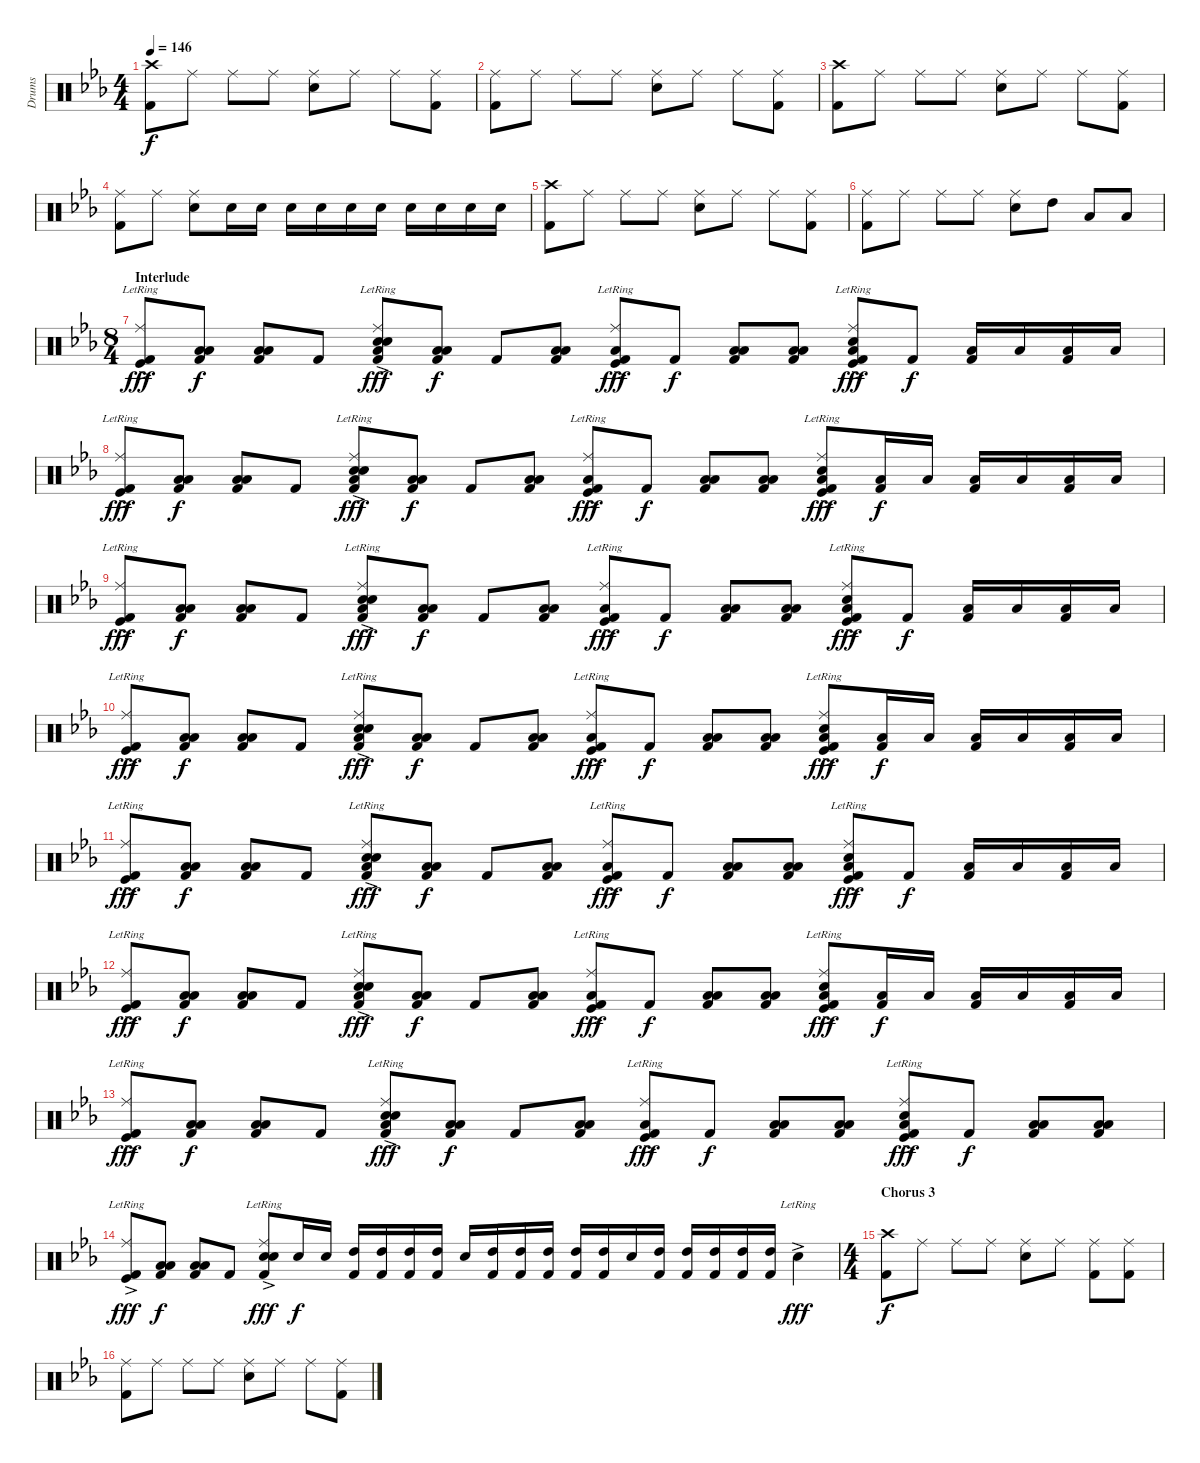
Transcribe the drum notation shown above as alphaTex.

\track ("Drums" "Drums") {instrument percussion}
\staff {score}
\articulation defaults
\ts (4 4)
\tempo 146
\clef neutral
\ks eb
("Crash high (hit)" "Kick (hit) 2").8{dy f} "Ride (middle)".8 "Ride (middle)".8 "Ride (middle)".8 ("Ride (middle)" "Electric Snare (hit)").8 "Ride (middle)".8 "Ride (middle)".8 ("Ride (middle)" "Kick (hit) 2").8 |
("Ride (middle)" "Kick (hit) 2").8 "Ride (middle)".8 "Ride (middle)".8 "Ride (middle)".8 ("Ride (middle)" "Electric Snare (hit)").8 "Ride (middle)".8 "Ride (middle)".8 ("Ride (middle)" "Kick (hit) 2").8 |
("Crash high (hit)" "Kick (hit) 2").8 "Ride (middle)".8 "Ride (middle)".8 "Ride (middle)".8 ("Ride (middle)" "Electric Snare (hit)").8 "Ride (middle)".8 "Ride (middle)".8 ("Ride (middle)" "Kick (hit) 2").8 |
("Ride (middle)" "Kick (hit) 2").8 "Ride (middle)".8 ("Ride (middle)" "Electric Snare (hit)").8 "Electric Snare (hit)".16 "Electric Snare (hit)".16 "Electric Snare (hit)".16 "Electric Snare (hit)".16 "Electric Snare (hit)".16 "Electric Snare (hit)".16 "Electric Snare (hit)".16 "Electric Snare (hit)".16 "Electric Snare (hit)".16 "Electric Snare (hit)".16 |
("Crash high (hit)" "Kick (hit) 2").8 "Ride (middle)".8 "Ride (middle)".8 "Ride (middle)".8 ("Ride (middle)" "Electric Snare (hit)").8 "Ride (middle)".8 "Ride (middle)".8 ("Ride (middle)" "Kick (hit) 2").8 |
("Ride (middle)" "Kick (hit) 2").8 "Ride (middle)".8 "Ride (middle)".8 "Ride (middle)".8 ("Ride (middle)" "Electric Snare (hit)").8 "High Tom (hit)".8 "Low Tom (hit)".8 "Low Floor Tom (hit)".8 |
\ts (8 4)
\section ("" "Interlude")
("Ride (middle)"{ac} "Kick (hit)"{ac} "Kick (hit) 2"{ac lr}).8{dy fff} ("Low Tom (hit)" "Low Floor Tom (hit)" "Kick (hit) 2").8{dy f} ("Low Tom (hit)" "Low Floor Tom (hit)" "Kick (hit) 2").8 "Kick (hit) 2".8 ("Ride (middle)"{ac} "Snare (hit) 2"{ac lr} "Kick (hit) 2" "Low Floor Tom (hit)" "Electric Snare (hit)"{ac lr}).8{dy fff} ("Low Tom (hit)" "Low Floor Tom (hit)" "Kick (hit) 2").8{dy f} "Kick (hit) 2".8 ("Low Tom (hit)" "Low Floor Tom (hit)" "Kick (hit) 2").8 ("Ride (middle)"{ac} "Kick (hit)"{ac lr} "Low Floor Tom (hit)" "Kick (hit) 2"{ac lr}).8{dy fff} "Kick (hit) 2".8{dy f} ("Low Tom (hit)" "Low Floor Tom (hit)" "Kick (hit) 2").8 ("Low Tom (hit)" "Low Floor Tom (hit)" "Kick (hit) 2").8 ("Ride (middle)"{ac} "Kick (hit)"{ac lr} "Kick (hit) 2"{ac lr} "Low Floor Tom (hit)" "Electric Snare (hit)").8{dy fff} "Kick (hit) 2".8{dy f} ("Low Floor Tom (hit)" "Kick (hit) 2").16 "Low Tom (hit)".16 ("Low Floor Tom (hit)" "Kick (hit) 2").16 "Low Tom (hit)".16 |
("Ride (middle)"{ac} "Kick (hit)"{ac} "Kick (hit) 2"{ac lr}).8{dy fff} ("Low Tom (hit)" "Low Floor Tom (hit)" "Kick (hit) 2").8{dy f} ("Low Tom (hit)" "Low Floor Tom (hit)" "Kick (hit) 2").8 "Kick (hit) 2".8 ("Ride (middle)"{ac} "Snare (hit) 2"{ac lr} "Kick (hit) 2" "Low Floor Tom (hit)" "Electric Snare (hit)"{ac lr}).8{dy fff} ("Low Tom (hit)" "Low Floor Tom (hit)" "Kick (hit) 2").8{dy f} "Kick (hit) 2".8 ("Low Tom (hit)" "Low Floor Tom (hit)" "Kick (hit) 2").8 ("Ride (middle)"{ac} "Kick (hit)"{ac lr} "Low Floor Tom (hit)" "Kick (hit) 2"{ac lr}).8{dy fff} "Kick (hit) 2".8{dy f} ("Low Tom (hit)" "Low Floor Tom (hit)" "Kick (hit) 2").8 ("Low Tom (hit)" "Low Floor Tom (hit)" "Kick (hit) 2").8 ("Ride (middle)"{ac} "Kick (hit)"{ac lr} "Kick (hit) 2"{ac lr} "Low Floor Tom (hit)" "Electric Snare (hit)").8{dy fff} ("Low Floor Tom (hit)" "Kick (hit) 2").16{dy f} "Low Tom (hit)".16 ("Low Floor Tom (hit)" "Kick (hit) 2").16 "Low Tom (hit)".16 ("Low Floor Tom (hit)" "Kick (hit) 2").16 "Low Tom (hit)".16 |
("Ride (middle)"{ac} "Kick (hit)"{ac} "Kick (hit) 2"{ac lr}).8{dy fff} ("Low Tom (hit)" "Low Floor Tom (hit)" "Kick (hit) 2").8{dy f} ("Low Tom (hit)" "Low Floor Tom (hit)" "Kick (hit) 2").8 "Kick (hit) 2".8 ("Ride (middle)"{ac} "Snare (hit) 2"{ac lr} "Kick (hit) 2" "Low Floor Tom (hit)" "Electric Snare (hit)"{ac lr}).8{dy fff} ("Low Tom (hit)" "Low Floor Tom (hit)" "Kick (hit) 2").8{dy f} "Kick (hit) 2".8 ("Low Tom (hit)" "Low Floor Tom (hit)" "Kick (hit) 2").8 ("Ride (middle)"{ac} "Kick (hit)"{ac lr} "Low Floor Tom (hit)" "Kick (hit) 2"{ac lr}).8{dy fff} "Kick (hit) 2".8{dy f} ("Low Tom (hit)" "Low Floor Tom (hit)" "Kick (hit) 2").8 ("Low Tom (hit)" "Low Floor Tom (hit)" "Kick (hit) 2").8 ("Ride (middle)"{ac} "Kick (hit)"{ac lr} "Kick (hit) 2"{ac lr} "Low Floor Tom (hit)" "Electric Snare (hit)").8{dy fff} "Kick (hit) 2".8{dy f} ("Low Floor Tom (hit)" "Kick (hit) 2").16 "Low Tom (hit)".16 ("Low Floor Tom (hit)" "Kick (hit) 2").16 "Low Tom (hit)".16 |
("Ride (middle)"{ac} "Kick (hit)"{ac} "Kick (hit) 2"{ac lr}).8{dy fff} ("Low Tom (hit)" "Low Floor Tom (hit)" "Kick (hit) 2").8{dy f} ("Low Tom (hit)" "Low Floor Tom (hit)" "Kick (hit) 2").8 "Kick (hit) 2".8 ("Ride (middle)"{ac} "Snare (hit) 2"{ac lr} "Kick (hit) 2" "Low Floor Tom (hit)" "Electric Snare (hit)"{ac lr}).8{dy fff} ("Low Tom (hit)" "Low Floor Tom (hit)" "Kick (hit) 2").8{dy f} "Kick (hit) 2".8 ("Low Tom (hit)" "Low Floor Tom (hit)" "Kick (hit) 2").8 ("Ride (middle)"{ac} "Kick (hit)"{ac lr} "Low Floor Tom (hit)" "Kick (hit) 2"{ac lr}).8{dy fff} "Kick (hit) 2".8{dy f} ("Low Tom (hit)" "Low Floor Tom (hit)" "Kick (hit) 2").8 ("Low Tom (hit)" "Low Floor Tom (hit)" "Kick (hit) 2").8 ("Ride (middle)"{ac} "Kick (hit)"{ac lr} "Kick (hit) 2"{ac lr} "Low Floor Tom (hit)" "Electric Snare (hit)").8{dy fff} ("Low Floor Tom (hit)" "Kick (hit) 2").16{dy f} "Low Tom (hit)".16 ("Low Floor Tom (hit)" "Kick (hit) 2").16 "Low Tom (hit)".16 ("Low Floor Tom (hit)" "Kick (hit) 2").16 "Low Tom (hit)".16 |
("Ride (middle)"{ac} "Kick (hit)"{ac} "Kick (hit) 2"{ac lr}).8{dy fff} ("Low Tom (hit)" "Low Floor Tom (hit)" "Kick (hit) 2").8{dy f} ("Low Tom (hit)" "Low Floor Tom (hit)" "Kick (hit) 2").8 "Kick (hit) 2".8 ("Ride (middle)"{ac} "Snare (hit) 2"{ac lr} "Kick (hit) 2" "Low Floor Tom (hit)" "Electric Snare (hit)"{ac lr}).8{dy fff} ("Low Tom (hit)" "Low Floor Tom (hit)" "Kick (hit) 2").8{dy f} "Kick (hit) 2".8 ("Low Tom (hit)" "Low Floor Tom (hit)" "Kick (hit) 2").8 ("Ride (middle)"{ac} "Kick (hit)"{ac lr} "Low Floor Tom (hit)" "Kick (hit) 2"{ac lr}).8{dy fff} "Kick (hit) 2".8{dy f} ("Low Tom (hit)" "Low Floor Tom (hit)" "Kick (hit) 2").8 ("Low Tom (hit)" "Low Floor Tom (hit)" "Kick (hit) 2").8 ("Ride (middle)"{ac} "Kick (hit)"{ac lr} "Kick (hit) 2"{ac lr} "Low Floor Tom (hit)" "Electric Snare (hit)").8{dy fff} "Kick (hit) 2".8{dy f} ("Low Floor Tom (hit)" "Kick (hit) 2").16 "Low Tom (hit)".16 ("Low Floor Tom (hit)" "Kick (hit) 2").16 "Low Tom (hit)".16 |
("Ride (middle)"{ac} "Kick (hit)"{ac} "Kick (hit) 2"{ac lr}).8{dy fff} ("Low Tom (hit)" "Low Floor Tom (hit)" "Kick (hit) 2").8{dy f} ("Low Tom (hit)" "Low Floor Tom (hit)" "Kick (hit) 2").8 "Kick (hit) 2".8 ("Ride (middle)"{ac} "Snare (hit) 2"{ac lr} "Kick (hit) 2" "Low Floor Tom (hit)" "Electric Snare (hit)"{ac lr}).8{dy fff} ("Low Tom (hit)" "Low Floor Tom (hit)" "Kick (hit) 2").8{dy f} "Kick (hit) 2".8 ("Low Tom (hit)" "Low Floor Tom (hit)" "Kick (hit) 2").8 ("Ride (middle)"{ac} "Kick (hit)"{ac lr} "Low Floor Tom (hit)" "Kick (hit) 2"{ac lr}).8{dy fff} "Kick (hit) 2".8{dy f} ("Low Tom (hit)" "Low Floor Tom (hit)" "Kick (hit) 2").8 ("Low Tom (hit)" "Low Floor Tom (hit)" "Kick (hit) 2").8 ("Ride (middle)"{ac} "Kick (hit)"{ac lr} "Kick (hit) 2"{ac lr} "Low Floor Tom (hit)" "Electric Snare (hit)").8{dy fff} ("Low Floor Tom (hit)" "Kick (hit) 2").16{dy f} "Low Tom (hit)".16 ("Low Floor Tom (hit)" "Kick (hit) 2").16 "Low Tom (hit)".16 ("Low Floor Tom (hit)" "Kick (hit) 2").16 "Low Tom (hit)".16 |
("Ride (middle)"{ac} "Kick (hit)"{ac} "Kick (hit) 2"{ac lr}).8{dy fff} ("Low Tom (hit)" "Low Floor Tom (hit)" "Kick (hit) 2").8{dy f} ("Low Tom (hit)" "Low Floor Tom (hit)" "Kick (hit) 2").8 "Kick (hit) 2".8 ("Ride (middle)"{ac} "Snare (hit) 2"{ac lr} "Kick (hit) 2" "Low Floor Tom (hit)" "Electric Snare (hit)"{ac lr}).8{dy fff} ("Low Tom (hit)" "Low Floor Tom (hit)" "Kick (hit) 2").8{dy f} "Kick (hit) 2".8 ("Low Tom (hit)" "Low Floor Tom (hit)" "Kick (hit) 2").8 ("Ride (middle)"{ac} "Kick (hit)"{ac lr} "Low Floor Tom (hit)" "Kick (hit) 2"{ac lr}).8{dy fff} "Kick (hit) 2".8{dy f} ("Low Tom (hit)" "Low Floor Tom (hit)" "Kick (hit) 2").8 ("Low Tom (hit)" "Low Floor Tom (hit)" "Kick (hit) 2").8 ("Ride (middle)"{ac} "Kick (hit)"{ac lr} "Kick (hit) 2"{ac lr} "Low Floor Tom (hit)" "Electric Snare (hit)").8{dy fff} "Kick (hit) 2".8{dy f} ("Low Tom (hit)" "Low Floor Tom (hit)" "Kick (hit) 2").8 ("Low Tom (hit)" "Low Floor Tom (hit)" "Kick (hit) 2").8 |
("Ride (middle)"{ac} "Kick (hit)"{ac lr} "Kick (hit) 2"{ac lr}).8{dy fff} ("Low Tom (hit)" "Low Floor Tom (hit)" "Kick (hit) 2").8{dy f} ("Low Tom (hit)" "Low Floor Tom (hit)" "Kick (hit) 2").8 "Kick (hit) 2".8 ("Ride (middle)"{ac} "Snare (hit) 2"{ac lr} "Kick (hit) 2" "Electric Snare (hit)"{ac lr}).8{dy fff} "Electric Snare (hit)".16{dy f} "Electric Snare (hit)".16 ("High Tom (hit)" "Kick (hit) 2").16 ("High Tom (hit)" "Kick (hit) 2").16 ("High Tom (hit)" "Kick (hit) 2").16 ("High Tom (hit)" "Kick (hit) 2").16 "Electric Snare (hit)".16 ("High Tom (hit)" "Kick (hit) 2").16 ("High Tom (hit)" "Kick (hit) 2").16 ("High Tom (hit)" "Kick (hit) 2").16 ("High Tom (hit)" "Kick (hit) 2").16 ("High Tom (hit)" "Kick (hit) 2").16 "Electric Snare (hit)".16 ("High Tom (hit)" "Kick (hit) 2").16 ("High Tom (hit)" "Kick (hit) 2").16 ("High Tom (hit)" "Kick (hit) 2").16 ("High Tom (hit)" "Kick (hit) 2").16 ("High Tom (hit)" "Kick (hit) 2").16 "Electric Snare (hit)"{ac lr}.4{dy fff} |
\ts (4 4)
\section ("" "Chorus 3")
("Crash high (hit)" "Kick (hit) 2").8{dy f} "Ride (middle)".8 "Ride (middle)".8 "Ride (middle)".8 ("Ride (middle)" "Electric Snare (hit)").8 "Ride (middle)".8 ("Ride (middle)" "Kick (hit) 2").8 ("Ride (middle)" "Kick (hit) 2").8 |
("Ride (middle)" "Kick (hit) 2").8 "Ride (middle)".8 "Ride (middle)".8 "Ride (middle)".8 ("Ride (middle)" "Electric Snare (hit)").8 "Ride (middle)".8 "Ride (middle)".8 ("Ride (middle)" "Kick (hit) 2").8
